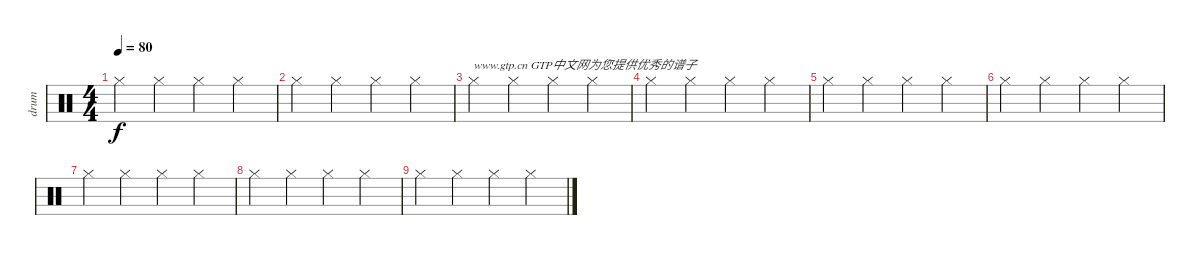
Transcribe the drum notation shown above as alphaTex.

\track ("drum" "drum") {instrument percussion}
\staff {score}
\articulation defaults
\ts (4 4)
\tempo 80
\clef neutral
\ks c "Hi-Hat (closed)".4{dy f} "Hi-Hat (closed)".4 "Hi-Hat (closed)".4 "Hi-Hat (closed)".4
|
"Hi-Hat (closed)".4 "Hi-Hat (closed)".4 "Hi-Hat (closed)".4 "Hi-Hat (closed)".4 |
"Hi-Hat (closed)".4{txt "www.gtp.cn GTP中文网为您提供优秀的谱子"} "Hi-Hat (closed)".4 "Hi-Hat (closed)".4 "Hi-Hat (closed)".4 |
"Hi-Hat (closed)".4 "Hi-Hat (closed)".4 "Hi-Hat (closed)".4 "Hi-Hat (closed)".4 |
"Hi-Hat (closed)".4 "Hi-Hat (closed)".4 "Hi-Hat (closed)".4 "Hi-Hat (closed)".4 |
"Hi-Hat (closed)".4 "Hi-Hat (closed)".4 "Hi-Hat (closed)".4 "Hi-Hat (closed)".4 |
"Hi-Hat (closed)".4 "Hi-Hat (closed)".4 "Hi-Hat (closed)".4 "Hi-Hat (closed)".4 |
"Hi-Hat (closed)".4 "Hi-Hat (closed)".4 "Hi-Hat (closed)".4 "Hi-Hat (closed)".4 |
"Hi-Hat (closed)".4 "Hi-Hat (closed)".4 "Hi-Hat (closed)".4 "Hi-Hat (closed)".4
